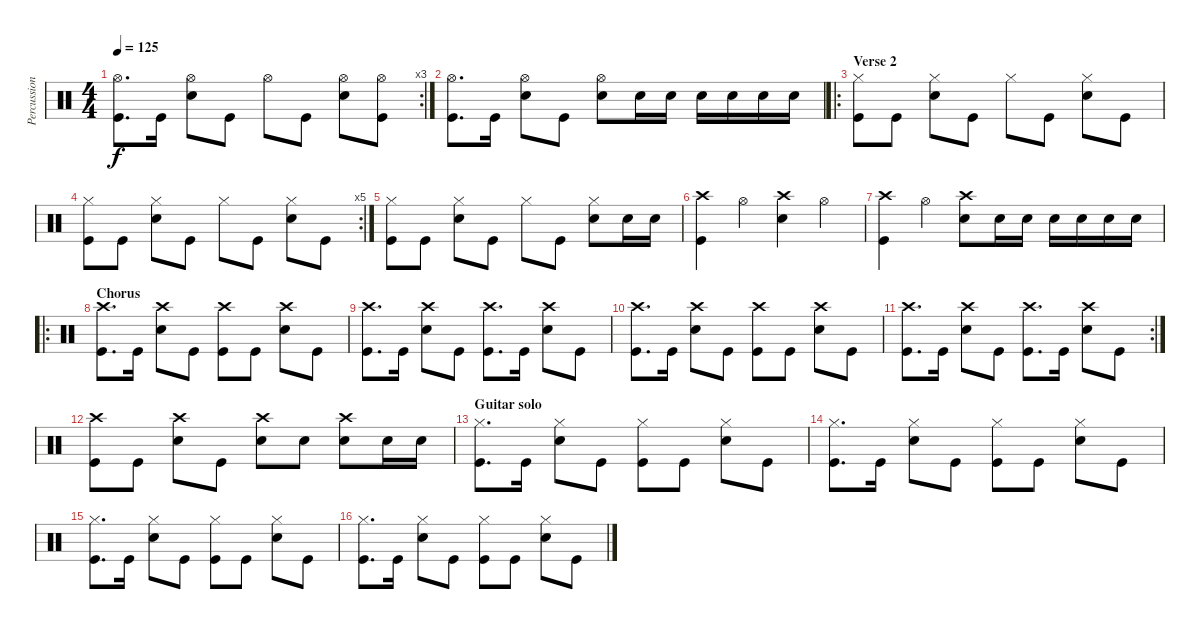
\track ("Percussion" "Percussion") {instrument percussion}
\staff {score}
\articulation defaults
\rc 3
\ts (4 4)
\tempo 125
\clef neutral
\ks c
("Hi-Hat (open)" "Kick (hit)").8{d dy f} "Kick (hit)".16 ("Hi-Hat (open)" "Snare (hit) 2").8 "Kick (hit)".8 "Hi-Hat (open)".8 "Kick (hit)".8 ("Hi-Hat (open)" "Snare (hit) 2").8 ("Hi-Hat (open)" "Kick (hit)").8 |
("Hi-Hat (open)" "Kick (hit)").8{d} "Kick (hit)".16 ("Hi-Hat (open)" "Snare (hit) 2").8 "Kick (hit)".8 ("Hi-Hat (open)" "Snare (hit) 2").8 "Snare (hit) 2".16 "Snare (hit) 2".16 "Snare (hit) 2".16 "Snare (hit) 2".16 "Snare (hit) 2".16 "Snare (hit) 2".16 |
\ro
\section ("" "Verse 2")
("Hi-Hat (closed)" "Kick (hit)").8 "Kick (hit)".8 ("Hi-Hat (closed)" "Snare (hit) 2").8 "Kick (hit)".8 "Hi-Hat (closed)".8 "Kick (hit)".8 ("Hi-Hat (closed)" "Snare (hit) 2").8 "Kick (hit)".8 |
\rc 5
("Hi-Hat (closed)" "Kick (hit)").8 "Kick (hit)".8 ("Hi-Hat (closed)" "Snare (hit) 2").8 "Kick (hit)".8 "Hi-Hat (closed)".8 "Kick (hit)".8 ("Hi-Hat (closed)" "Snare (hit) 2").8 "Kick (hit)".8 |
("Hi-Hat (closed)" "Kick (hit)").8 "Kick (hit)".8 ("Hi-Hat (closed)" "Snare (hit) 2").8 "Kick (hit)".8 "Hi-Hat (closed)".8 "Kick (hit)".8 ("Hi-Hat (closed)" "Snare (hit) 2").8 "Snare (hit) 2".16 "Snare (hit) 2".16 |
("Crash high (hit)" "Kick (hit)").4 "Hi-Hat (open)".4 ("Crash high (hit)" "Snare (hit) 2").4 "Hi-Hat (open)".4 |
("Crash high (hit)" "Kick (hit)").4 "Hi-Hat (open)".4 ("Crash high (hit)" "Snare (hit) 2").8 "Snare (hit) 2".16 "Snare (hit) 2".16 "Snare (hit) 2".16 "Snare (hit) 2".16 "Snare (hit) 2".16 "Snare (hit) 2".16 |
\ro
\section ("" "Chorus")
("Crash high (hit)" "Kick (hit)").8{d} "Kick (hit)".16 ("Crash high (hit)" "Snare (hit) 2").8 "Kick (hit)".8 ("Crash high (hit)" "Kick (hit)").8 "Kick (hit)".8 ("Crash high (hit)" "Snare (hit) 2").8 "Kick (hit)".8 |
("Crash high (hit)" "Kick (hit)").8{d} "Kick (hit)".16 ("Crash high (hit)" "Snare (hit) 2").8 "Kick (hit)".8 ("Crash high (hit)" "Kick (hit)").8{d} "Kick (hit)".16 ("Crash high (hit)" "Snare (hit) 2").8 "Kick (hit)".8 |
("Crash high (hit)" "Kick (hit)").8{d} "Kick (hit)".16 ("Crash high (hit)" "Snare (hit) 2").8 "Kick (hit)".8 ("Crash high (hit)" "Kick (hit)").8 "Kick (hit)".8 ("Crash high (hit)" "Snare (hit) 2").8 "Kick (hit)".8 |
\rc 2
("Crash high (hit)" "Kick (hit)").8{d} "Kick (hit)".16 ("Crash high (hit)" "Snare (hit) 2").8 "Kick (hit)".8 ("Crash high (hit)" "Kick (hit)").8{d} "Kick (hit)".16 ("Crash high (hit)" "Snare (hit) 2").8 "Kick (hit)".8 |
("Crash high (hit)" "Kick (hit)").8 "Kick (hit)".8 ("Crash high (hit)" "Snare (hit) 2").8 "Kick (hit)".8 ("Crash high (hit)" "Snare (hit) 2").8 "Snare (hit) 2".8 ("Crash high (hit)" "Snare (hit) 2").8 "Snare (hit) 2".16 "Snare (hit) 2".16 |
\section ("" "Guitar solo")
("Hi-Hat (closed)" "Kick (hit)").8{d} "Kick (hit)".16 ("Hi-Hat (closed)" "Snare (hit) 2").8 "Kick (hit)".8 ("Hi-Hat (closed)" "Kick (hit)").8 "Kick (hit)".8 ("Hi-Hat (closed)" "Snare (hit) 2").8 "Kick (hit)".8 |
("Hi-Hat (closed)" "Kick (hit)").8{d} "Kick (hit)".16 ("Hi-Hat (closed)" "Snare (hit) 2").8 "Kick (hit)".8 ("Hi-Hat (closed)" "Kick (hit)").8 "Kick (hit)".8 ("Hi-Hat (closed)" "Snare (hit) 2").8 "Kick (hit)".8 |
("Hi-Hat (closed)" "Kick (hit)").8{d} "Kick (hit)".16 ("Hi-Hat (closed)" "Snare (hit) 2").8 "Kick (hit)".8 ("Hi-Hat (closed)" "Kick (hit)").8 "Kick (hit)".8 ("Hi-Hat (closed)" "Snare (hit) 2").8 "Kick (hit)".8 |
("Hi-Hat (closed)" "Kick (hit)").8{d} "Kick (hit)".16 ("Hi-Hat (closed)" "Snare (hit) 2").8 "Kick (hit)".8 ("Hi-Hat (closed)" "Kick (hit)").8 "Kick (hit)".8 ("Hi-Hat (closed)" "Snare (hit) 2").8 "Kick (hit)".8
